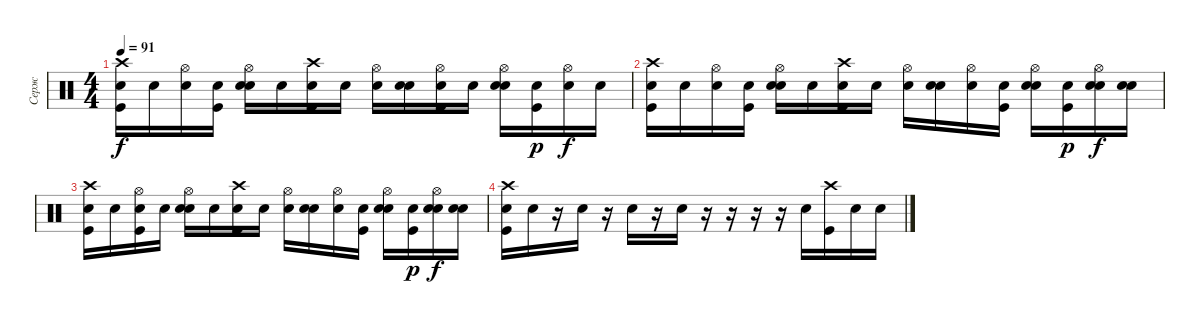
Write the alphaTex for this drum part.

\track ("Серж" "Серж") {instrument percussion}
\staff {score}
\articulation defaults
\ts (4 4)
\tempo 91
\clef neutral
\ks c
("Snare (hit)"{x} "Kick (hit)" "Crash high (hit)").16{dy f} "Snare (hit)"{x}.16 ("Snare (hit)"{x} "Hi-Hat (open)").16 ("Snare (hit)"{x} "Kick (hit)").16 ("Snare (hit)"{x} "Snare (hit) 2" "Hi-Hat (open)").16 "Snare (hit)"{x}.16 ("Snare (hit)"{x} "Kick (hit)" "Crash high (hit)").16 "Snare (hit)"{x}.16 ("Snare (hit)"{x} "Hi-Hat (open)").16 ("Snare (hit)"{x} "Snare (hit) 2").16 ("Snare (hit)"{x} "Kick (hit)" "Hi-Hat (open)").16 "Snare (hit)"{x}.16 ("Snare (hit)"{x} "Snare (hit) 2" "Hi-Hat (open)").16 ("Snare (hit)"{x} "Kick (hit)").16{dy p} ("Snare (hit)"{x} "Hi-Hat (open)").16{dy f} "Snare (hit)"{x}.16 |
("Snare (hit)"{x} "Kick (hit)" "Crash high (hit)").16 "Snare (hit)"{x}.16 ("Snare (hit)"{x} "Hi-Hat (open)").16 ("Snare (hit)"{x} "Kick (hit)").16 ("Snare (hit)"{x} "Snare (hit) 2" "Hi-Hat (open)").16 "Snare (hit)"{x}.16 ("Snare (hit)"{x} "Kick (hit)" "Crash high (hit)").16 "Snare (hit)"{x}.16 ("Snare (hit)"{x} "Hi-Hat (open)").16 ("Snare (hit)"{x} "Snare (hit) 2").16 ("Snare (hit)"{x} "Hi-Hat (open)").16 ("Snare (hit)"{x} "Kick (hit)").16 ("Snare (hit)"{x} "Snare (hit) 2" "Hi-Hat (open)").16 ("Snare (hit)"{x} "Kick (hit)").16{dy p} ("Snare (hit)"{x} "Snare (hit) 2" "Hi-Hat (open)").16{dy f} ("Snare (hit)"{x} "Snare (hit) 2").16 |
("Snare (hit)"{x} "Kick (hit)" "Crash high (hit)").16 "Snare (hit)"{x}.16 ("Snare (hit)"{x} "Kick (hit)" "Hi-Hat (open)").16 "Snare (hit)"{x}.16 ("Snare (hit)"{x} "Snare (hit) 2" "Hi-Hat (open)").16 "Snare (hit)"{x}.16 ("Snare (hit)"{x} "Kick (hit)" "Crash high (hit)").16 "Snare (hit)"{x}.16 ("Snare (hit)"{x} "Hi-Hat (open)").16 ("Snare (hit)"{x} "Snare (hit) 2").16 ("Snare (hit)"{x} "Hi-Hat (open)").16 ("Snare (hit)"{x} "Kick (hit)").16 ("Snare (hit)"{x} "Snare (hit) 2" "Hi-Hat (open)").16 ("Snare (hit)"{x} "Kick (hit)").16{dy p} ("Snare (hit)"{x} "Snare (hit) 2" "Hi-Hat (open)").16{dy f} ("Snare (hit)"{x} "Snare (hit) 2").16 |
("Snare (hit)"{x} "Kick (hit)" "Crash high (hit)").16 "Snare (hit)"{x}.16 r.16 "Snare (hit)"{x}.16 r.16 "Snare (hit)"{x}.16 r.16 "Snare (hit)"{x}.16 r.16 r.16 r.16 r.16 "Snare (hit) 2".16 ("Kick (hit)" "Crash high (hit)").16 "Snare (hit)"{x}.16 "Snare (hit)"{x}.16
